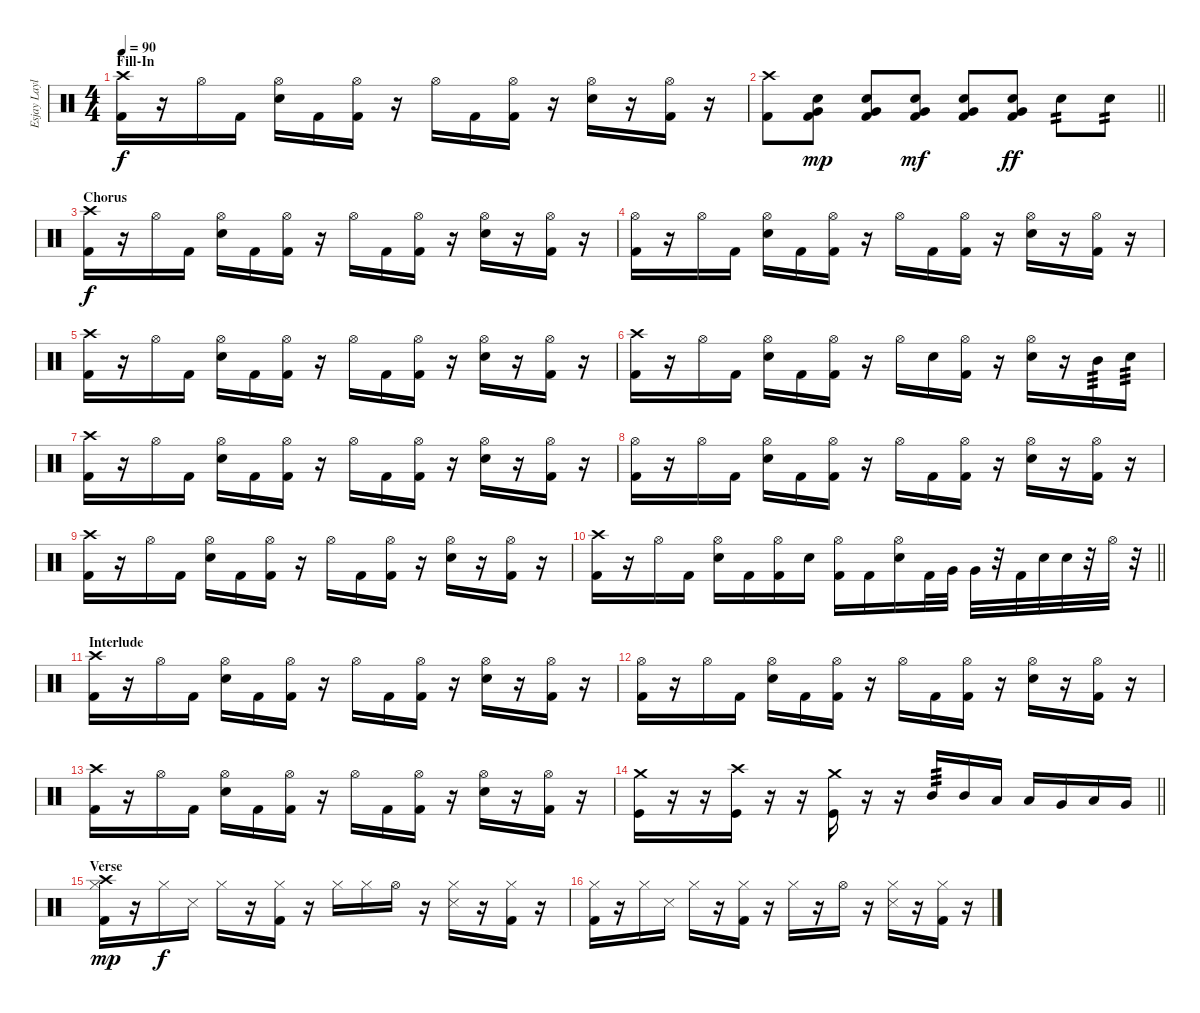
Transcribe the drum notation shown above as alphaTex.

\track ("Esjay Laylo's Drums" "Esjay Layl") {instrument percussion}
\staff {score}
\articulation defaults
\ts (4 4)
\section ("" "Fill-In")
\tempo 90
\clef neutral
\ks c
("Crash high (hit)" "Kick (hit) 2").16{dy f} r.16 "Hi-Hat (open)".16 "Kick (hit) 2".16 ("Hi-Hat (open)" "Snare (hit) 2").16 "Kick (hit) 2".16 ("Hi-Hat (open)" "Kick (hit) 2").16 r.16 "Hi-Hat (open)".16 "Kick (hit) 2".16 ("Hi-Hat (open)" "Kick (hit) 2").16 r.16 ("Hi-Hat (open)" "Snare (hit) 2").16 r.16 ("Hi-Hat (open)" "Kick (hit) 2").16 r.16 |
\barLineRight lightlight
("Crash high (hit)" "Kick (hit) 2").8 ("Very Low Tom (hit)" "Kick (hit) 2" "Snare (hit) 2").8{dy mp} ("Very Low Tom (hit)" "Kick (hit) 2" "Snare (hit) 2").8 ("Very Low Tom (hit)" "Kick (hit) 2" "Snare (hit) 2").8{dy mf} ("Very Low Tom (hit)" "Kick (hit) 2" "Snare (hit) 2").8 ("Very Low Tom (hit)" "Kick (hit) 2" "Snare (hit) 2").8{dy ff} "Snare (hit) 2".8{tp 2} "Snare (hit) 2".8{tp 2} |
\section ("" "Chorus")
("Crash high (hit)" "Kick (hit) 2").16{dy f} r.16 "Hi-Hat (open)".16 "Kick (hit) 2".16 ("Hi-Hat (open)" "Snare (hit) 2").16 "Kick (hit) 2".16 ("Hi-Hat (open)" "Kick (hit) 2").16 r.16 "Hi-Hat (open)".16 "Kick (hit) 2".16 ("Hi-Hat (open)" "Kick (hit) 2").16 r.16 ("Hi-Hat (open)" "Snare (hit) 2").16 r.16 ("Hi-Hat (open)" "Kick (hit) 2").16 r.16 |
("Hi-Hat (open)" "Kick (hit) 2").16 r.16 "Hi-Hat (open)".16 "Kick (hit) 2".16 ("Hi-Hat (open)" "Snare (hit) 2").16 "Kick (hit) 2".16 ("Hi-Hat (open)" "Kick (hit) 2").16 r.16 "Hi-Hat (open)".16 "Kick (hit) 2".16 ("Hi-Hat (open)" "Kick (hit) 2").16 r.16 ("Hi-Hat (open)" "Snare (hit) 2").16 r.16 ("Hi-Hat (open)" "Kick (hit) 2").16 r.16 |
("Crash high (hit)" "Kick (hit) 2").16 r.16 "Hi-Hat (open)".16 "Kick (hit) 2".16 ("Hi-Hat (open)" "Snare (hit) 2").16 "Kick (hit) 2".16 ("Hi-Hat (open)" "Kick (hit) 2").16 r.16 "Hi-Hat (open)".16 "Kick (hit) 2".16 ("Hi-Hat (open)" "Kick (hit) 2").16 r.16 ("Hi-Hat (open)" "Snare (hit) 2").16 r.16 ("Hi-Hat (open)" "Kick (hit) 2").16 r.16 |
("Crash high (hit)" "Kick (hit) 2").16 r.16 "Hi-Hat (open)".16 "Kick (hit) 2".16 ("Hi-Hat (open)" "Snare (hit) 2").16 "Kick (hit) 2".16 ("Hi-Hat (open)" "Kick (hit) 2").16 r.16 "Hi-Hat (open)".16 "Snare (hit) 2".16 ("Hi-Hat (open)" "Kick (hit) 2").16 r.16 ("Hi-Hat (open)" "Snare (hit) 2").16 r.16 "Mid Tom (hit)".16{tp 3} "Snare (hit) 2".16{tp 3} |
("Crash high (hit)" "Kick (hit) 2").16 r.16 "Hi-Hat (open)".16 "Kick (hit) 2".16 ("Hi-Hat (open)" "Snare (hit) 2").16 "Kick (hit) 2".16 ("Hi-Hat (open)" "Kick (hit) 2").16 r.16 "Hi-Hat (open)".16 "Kick (hit) 2".16 ("Hi-Hat (open)" "Kick (hit) 2").16 r.16 ("Hi-Hat (open)" "Snare (hit) 2").16 r.16 ("Hi-Hat (open)" "Kick (hit) 2").16 r.16 |
("Hi-Hat (open)" "Kick (hit) 2").16 r.16 "Hi-Hat (open)".16 "Kick (hit) 2".16 ("Hi-Hat (open)" "Snare (hit) 2").16 "Kick (hit) 2".16 ("Hi-Hat (open)" "Kick (hit) 2").16 r.16 "Hi-Hat (open)".16 "Kick (hit) 2".16 ("Hi-Hat (open)" "Kick (hit) 2").16 r.16 ("Hi-Hat (open)" "Snare (hit) 2").16 r.16 ("Hi-Hat (open)" "Kick (hit) 2").16 r.16 |
("Crash high (hit)" "Kick (hit) 2").16 r.16 "Hi-Hat (open)".16 "Kick (hit) 2".16 ("Hi-Hat (open)" "Snare (hit) 2").16 "Kick (hit) 2".16 ("Hi-Hat (open)" "Kick (hit) 2").16 r.16 "Hi-Hat (open)".16 "Kick (hit) 2".16 ("Hi-Hat (open)" "Kick (hit) 2").16 r.16 ("Hi-Hat (open)" "Snare (hit) 2").16 r.16 ("Hi-Hat (open)" "Kick (hit) 2").16 r.16 |
\barLineRight lightlight
("Crash high (hit)" "Kick (hit) 2").16 r.16 "Hi-Hat (open)".16 "Kick (hit) 2".16 ("Hi-Hat (open)" "Snare (hit) 2").16 "Kick (hit) 2".16 ("Hi-Hat (open)" "Kick (hit) 2").16 "Snare (hit) 2".16 ("Hi-Hat (open)" "Kick (hit) 2").16 "Kick (hit) 2".16 ("Hi-Hat (open)" "Snare (hit) 2").16 "Kick (hit) 2".32 "Very Low Tom (hit)".32 "Very Low Tom (hit)".32 r.32 "Kick (hit) 2".32 "Snare (hit) 2".32 "Snare (hit) 2".32 r.32 "Hi-Hat (open)".32 r.32 |
\section ("" "Interlude")
("Crash high (hit)" "Kick (hit) 2").16 r.16 "Hi-Hat (open)".16 "Kick (hit) 2".16 ("Hi-Hat (open)" "Snare (hit) 2").16 "Kick (hit) 2".16 ("Hi-Hat (open)" "Kick (hit) 2").16 r.16 "Hi-Hat (open)".16 "Kick (hit) 2".16 ("Hi-Hat (open)" "Kick (hit) 2").16 r.16 ("Hi-Hat (open)" "Snare (hit) 2").16 r.16 ("Hi-Hat (open)" "Kick (hit) 2").16 r.16 |
("Hi-Hat (open)" "Kick (hit) 2").16 r.16 "Hi-Hat (open)".16 "Kick (hit) 2".16 ("Hi-Hat (open)" "Snare (hit) 2").16 "Kick (hit) 2".16 ("Hi-Hat (open)" "Kick (hit) 2").16 r.16 "Hi-Hat (open)".16 "Kick (hit) 2".16 ("Hi-Hat (open)" "Kick (hit) 2").16 r.16 ("Hi-Hat (open)" "Snare (hit) 2").16 r.16 ("Hi-Hat (open)" "Kick (hit) 2").16 r.16 |
("Crash high (hit)" "Kick (hit) 2").16 r.16 "Hi-Hat (open)".16 "Kick (hit) 2".16 ("Hi-Hat (open)" "Snare (hit) 2").16 "Kick (hit) 2".16 ("Hi-Hat (open)" "Kick (hit) 2").16 r.16 "Hi-Hat (open)".16 "Kick (hit) 2".16 ("Hi-Hat (open)" "Kick (hit) 2").16 r.16 ("Hi-Hat (open)" "Snare (hit) 2").16 r.16 ("Hi-Hat (open)" "Kick (hit) 2").16 r.16 |
\barLineRight lightlight
("Crash medium (hit)" "Kick (hit)").16 r.16 r.16 ("Crash high (hit)" "Kick (hit)").16 r.16 r.16 ("Crash medium (hit)" "Kick (hit)").16 r.16 r.16 "Mid Tom (hit)".16{tp 3} "Mid Tom (hit)".16 "Low Tom (hit)".16 "Low Tom (hit)".16 "Very Low Tom (hit)".16 "Low Tom (hit)".16 "Very Low Tom (hit)".16 |
\section ("" "Verse")
("Hi-Hat (closed)" "Kick (hit) 2" "Crash high (hit)").16{dy mp} r.16 "Hi-Hat (closed)".16{dy f} "Snare (side stick) 3".16 "Hi-Hat (closed)".16 r.16 ("Hi-Hat (closed)" "Kick (hit) 2").16 r.16 "Hi-Hat (closed)".16 "Hi-Hat (closed)".16 "Hi-Hat (open)".16 r.16 ("Hi-Hat (closed)" "Snare (side stick) 3").16 r.16 ("Hi-Hat (closed)" "Kick (hit) 2").16 r.16 |
("Hi-Hat (closed)" "Kick (hit) 2").16 r.16 "Hi-Hat (closed)".16 "Snare (side stick) 3".16 "Hi-Hat (closed)".16 r.16 ("Hi-Hat (closed)" "Kick (hit) 2").16 r.16 "Hi-Hat (closed)".16 r.16 "Hi-Hat (open)".16 r.16 ("Hi-Hat (closed)" "Snare (side stick) 3").16 r.16 ("Hi-Hat (closed)" "Kick (hit) 2").16 r.16
